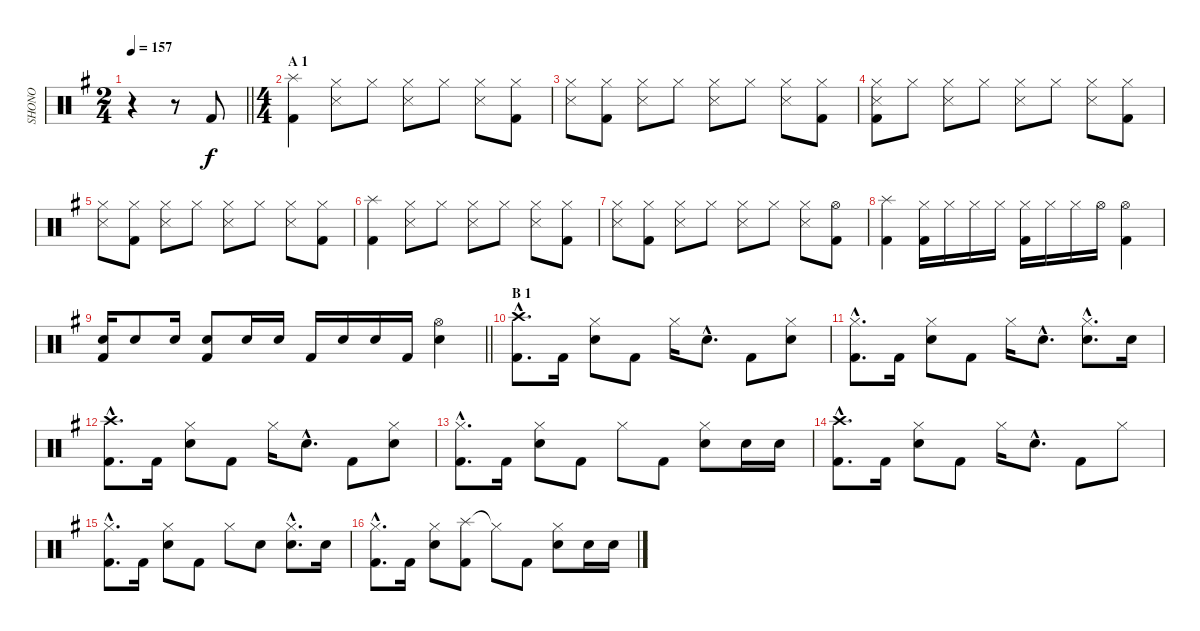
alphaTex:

\track ("SHONO" "SHONO") {instrument percussion}
\staff {score}
\articulation defaults
\ts (2 4)
\tempo 157
\clef neutral
\barLineRight lightlight
\ks g
r.4{dy f} r.8 "Kick (hit) 2".8 |
\ts (4 4)
\section ("" "A 1")
("Splash (hit)" "Kick (hit) 2").4 ("Hi-Hat (closed)" "Snare (side stick) 3").8 "Hi-Hat (closed)".8 ("Hi-Hat (closed)" "Snare (side stick) 3").8 "Hi-Hat (closed)".8 ("Hi-Hat (closed)" "Snare (side stick) 3").8 ("Hi-Hat (closed)" "Kick (hit) 2").8 |
("Hi-Hat (closed)" "Snare (side stick) 3").8 ("Hi-Hat (closed)" "Kick (hit) 2").8 ("Hi-Hat (closed)" "Snare (side stick) 3").8 "Hi-Hat (closed)".8 ("Hi-Hat (closed)" "Snare (side stick) 3").8 "Hi-Hat (closed)".8 ("Hi-Hat (closed)" "Snare (side stick) 3").8 ("Hi-Hat (closed)" "Kick (hit) 2").8 |
("Hi-Hat (closed)" "Snare (side stick) 3" "Kick (hit) 2").8 "Hi-Hat (closed)".8 ("Hi-Hat (closed)" "Snare (side stick) 3").8 "Hi-Hat (closed)".8 ("Hi-Hat (closed)" "Snare (side stick) 3").8 "Hi-Hat (closed)".8 ("Hi-Hat (closed)" "Snare (side stick) 3").8 ("Hi-Hat (closed)" "Kick (hit) 2").8 |
("Hi-Hat (closed)" "Snare (side stick) 3").8 ("Hi-Hat (closed)" "Kick (hit) 2").8 ("Hi-Hat (closed)" "Snare (side stick) 3").8 "Hi-Hat (closed)".8 ("Hi-Hat (closed)" "Snare (side stick) 3").8 "Hi-Hat (closed)".8 ("Hi-Hat (closed)" "Snare (side stick) 3").8 ("Hi-Hat (closed)" "Kick (hit) 2").8 |
("Splash (hit)" "Kick (hit) 2").4 ("Hi-Hat (closed)" "Snare (side stick) 3").8 "Hi-Hat (closed)".8 ("Hi-Hat (closed)" "Snare (side stick) 3").8 "Hi-Hat (closed)".8 ("Hi-Hat (closed)" "Snare (side stick) 3").8 ("Hi-Hat (closed)" "Kick (hit) 2").8 |
("Hi-Hat (closed)" "Snare (side stick) 3").8 ("Hi-Hat (closed)" "Kick (hit) 2").8 ("Hi-Hat (closed)" "Snare (side stick) 3").8 "Hi-Hat (closed)".8 ("Hi-Hat (closed)" "Snare (side stick) 3").8 "Hi-Hat (closed)".8 ("Hi-Hat (closed)" "Snare (side stick) 3").8 ("Hi-Hat (open)" "Kick (hit) 2").8 |
("Splash (hit)" "Kick (hit) 2").4 ("Hi-Hat (closed)" "Kick (hit) 2").16 "Hi-Hat (closed)".16 "Hi-Hat (closed)".16 "Hi-Hat (closed)".16 ("Hi-Hat (closed)" "Kick (hit) 2").16 "Hi-Hat (closed)".16 "Hi-Hat (closed)".16 "Hi-Hat (open)".16 ("Hi-Hat (open)" "Kick (hit) 2").4 |
\barLineRight lightlight
("Snare (hit) 2" "Kick (hit) 2").16 "Snare (hit) 2".8 "Snare (hit) 2".16 ("Snare (hit) 2" "Kick (hit) 2").8 "Snare (hit) 2".16 "Snare (hit) 2".16 "Kick (hit) 2".16 "Snare (hit) 2".16 "Snare (hit) 2".16 "Kick (hit) 2".16 ("Hi-Hat (open)" "Snare (hit) 2").4 |
\section ("" "B 1")
("Crash high (hit)"{hac} "Kick (hit) 2"{hac}).8{d} "Kick (hit) 2".16 ("Hi-Hat (closed)" "Snare (hit) 2").8 "Kick (hit) 2".8 "Hi-Hat (closed)".16 "Snare (hit) 2"{hac}.8{d} "Kick (hit) 2".8 ("Hi-Hat (closed)" "Snare (hit) 2").8 |
("Hi-Hat (closed)"{hac} "Kick (hit) 2"{hac}).8{d} "Kick (hit) 2".16 ("Hi-Hat (closed)" "Snare (hit) 2").8 "Kick (hit) 2".8 "Hi-Hat (closed)".16 "Snare (hit) 2"{hac}.8{d} ("Hi-Hat (closed)"{hac} "Snare (hit) 2"{hac}).8{d} "Snare (hit) 2".16 |
("Crash high (hit)"{hac} "Kick (hit) 2"{hac}).8{d} "Kick (hit) 2".16 ("Hi-Hat (closed)" "Snare (hit) 2").8 "Kick (hit) 2".8 "Hi-Hat (closed)".16 "Snare (hit) 2"{hac}.8{d} "Kick (hit) 2".8 ("Hi-Hat (closed)" "Snare (hit) 2").8 |
("Hi-Hat (closed)"{hac} "Kick (hit) 2"{hac}).8{d} "Kick (hit) 2".16 ("Hi-Hat (closed)" "Snare (hit) 2").8 "Kick (hit) 2".8 "Hi-Hat (closed)".8 "Kick (hit) 2".8 ("Hi-Hat (closed)" "Snare (hit) 2").8 "Snare (hit) 2".16 "Snare (hit) 2".16 |
("Crash high (hit)"{hac} "Kick (hit) 2"{hac}).8{d} "Kick (hit) 2".16 ("Hi-Hat (closed)" "Snare (hit) 2").8 "Kick (hit) 2".8 "Hi-Hat (closed)".16 "Snare (hit) 2"{hac}.8{d} "Kick (hit) 2".8 "Hi-Hat (closed)".8 |
("Hi-Hat (closed)"{hac} "Kick (hit) 2"{hac}).8{d} "Kick (hit) 2".16 ("Hi-Hat (closed)" "Snare (hit) 2").8 "Kick (hit) 2".8 "Hi-Hat (closed)".8 "Snare (hit) 2".8 ("Hi-Hat (closed)"{hac} "Snare (hit) 2"{hac}).8{d} "Snare (hit) 2".16 |
("Hi-Hat (closed)"{hac} "Kick (hit) 2"{hac}).8{d} "Kick (hit) 2".16 ("Hi-Hat (closed)" "Snare (hit) 2").8 ("Splash (hit)" "Kick (hit) 2").8 "Hi-Hat (closed)"{t}.8 "Kick (hit) 2".8 ("Hi-Hat (closed)" "Snare (hit) 2").8 "Snare (hit) 2".16 "Snare (hit) 2".16
